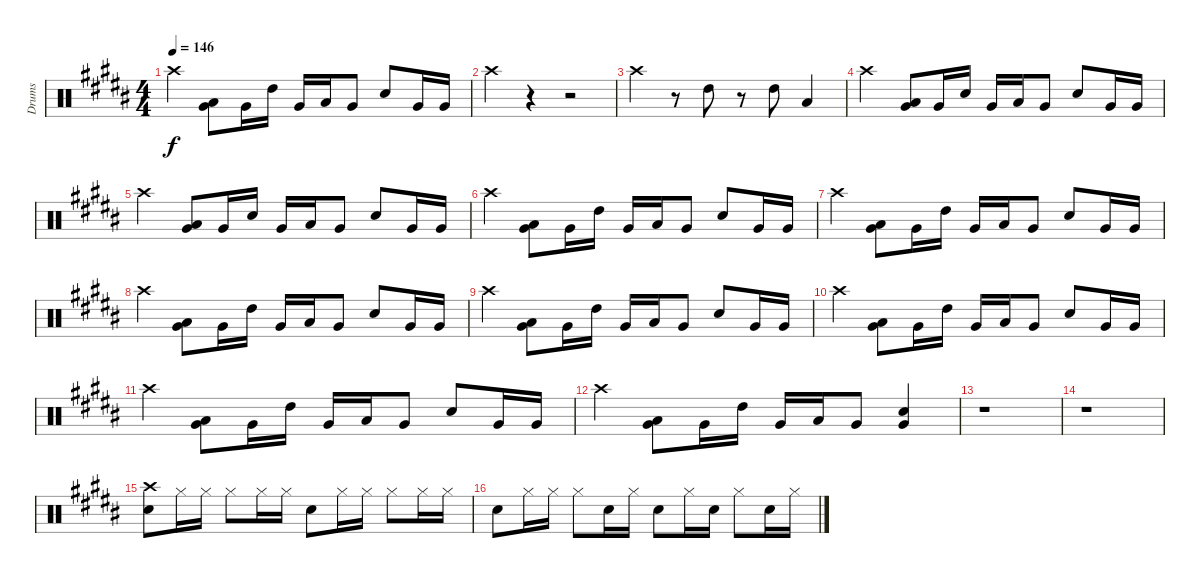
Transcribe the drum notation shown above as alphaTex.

\track ("Drums" "Drums") {instrument percussion}
\staff {score}
\articulation defaults
\ts (4 4)
\tempo 146
\clef neutral
\ks b "Crash high (hit)".4{dy f}
("Low Tom (hit)" "Very Low Tom (hit)").8 "Very Low Tom (hit)".16 "High Tom (hit)".16 "Very Low Tom (hit)".16 "Low Tom (hit)".16 "Very Low Tom (hit)".8 "Snare (hit) 2".8 "Very Low Tom (hit)".16 "Very Low Tom (hit)".16 |
"Crash high (hit)".4 r.4 r.2 |
"Crash high (hit)".4 r.8 "High Tom (hit)".8 r.8 "High Tom (hit)".8 "Low Tom (hit)".4 |
"Crash high (hit)".4 ("Low Tom (hit)" "Very Low Tom (hit)").8 "Very Low Tom (hit)".16 "Snare (hit) 2".16 "Very Low Tom (hit)".16 "Low Tom (hit)".16 "Very Low Tom (hit)".8 "Snare (hit) 2".8 "Very Low Tom (hit)".16 "Very Low Tom (hit)".16 |
"Crash high (hit)".4 ("Low Tom (hit)" "Very Low Tom (hit)").8 "Very Low Tom (hit)".16 "Snare (hit) 2".16 "Very Low Tom (hit)".16 "Low Tom (hit)".16 "Very Low Tom (hit)".8 "Snare (hit) 2".8 "Very Low Tom (hit)".16 "Very Low Tom (hit)".16 |
"Crash high (hit)".4 ("Low Tom (hit)" "Very Low Tom (hit)").8 "Very Low Tom (hit)".16 "High Tom (hit)".16 "Very Low Tom (hit)".16 "Low Tom (hit)".16 "Very Low Tom (hit)".8 "Snare (hit) 2".8 "Very Low Tom (hit)".16 "Very Low Tom (hit)".16 |
"Crash high (hit)".4 ("Low Tom (hit)" "Very Low Tom (hit)").8 "Very Low Tom (hit)".16 "High Tom (hit)".16 "Very Low Tom (hit)".16 "Low Tom (hit)".16 "Very Low Tom (hit)".8 "Snare (hit) 2".8 "Very Low Tom (hit)".16 "Very Low Tom (hit)".16 |
"Crash high (hit)".4 ("Low Tom (hit)" "Very Low Tom (hit)").8 "Very Low Tom (hit)".16 "High Tom (hit)".16 "Very Low Tom (hit)".16 "Low Tom (hit)".16 "Very Low Tom (hit)".8 "Snare (hit) 2".8 "Very Low Tom (hit)".16 "Very Low Tom (hit)".16 |
"Crash high (hit)".4 ("Low Tom (hit)" "Very Low Tom (hit)").8 "Very Low Tom (hit)".16 "High Tom (hit)".16 "Very Low Tom (hit)".16 "Low Tom (hit)".16 "Very Low Tom (hit)".8 "Snare (hit) 2".8 "Very Low Tom (hit)".16 "Very Low Tom (hit)".16 |
"Crash high (hit)".4 ("Low Tom (hit)" "Very Low Tom (hit)").8 "Very Low Tom (hit)".16 "High Tom (hit)".16 "Very Low Tom (hit)".16 "Low Tom (hit)".16 "Very Low Tom (hit)".8 "Snare (hit) 2".8 "Very Low Tom (hit)".16 "Very Low Tom (hit)".16 |
"Crash high (hit)".4 ("Low Tom (hit)" "Very Low Tom (hit)").8 "Very Low Tom (hit)".16 "High Tom (hit)".16 "Very Low Tom (hit)".16 "Low Tom (hit)".16 "Very Low Tom (hit)".8 "Snare (hit) 2".8 "Very Low Tom (hit)".16 "Very Low Tom (hit)".16 |
"Crash high (hit)".4 ("Low Tom (hit)" "Very Low Tom (hit)").8 "Very Low Tom (hit)".16 "High Tom (hit)".16 "Very Low Tom (hit)".16 "Low Tom (hit)".16 "Very Low Tom (hit)".8 ("Snare (hit) 2" "Very Low Tom (hit)").4 |
r.1 |
r.1 |
("Crash high (hit)" "Snare (hit) 2").8 "Hi-Hat (closed)".16 "Hi-Hat (closed)".16 "Hi-Hat (closed)".8 "Hi-Hat (closed)".16 "Hi-Hat (closed)".16 "Snare (hit) 2".8 "Hi-Hat (closed)".16 "Hi-Hat (closed)".16 "Hi-Hat (closed)".8 "Hi-Hat (closed)".16 "Hi-Hat (closed)".16 |
"Snare (hit) 2".8 "Hi-Hat (closed)".16 "Hi-Hat (closed)".16 "Hi-Hat (closed)".8 "Snare (hit) 2".16 "Hi-Hat (closed)".16 "Snare (hit) 2".8 "Hi-Hat (closed)".16 "Snare (hit) 2".16 "Hi-Hat (closed)".8 "Snare (hit) 2".16 "Hi-Hat (closed)".16
